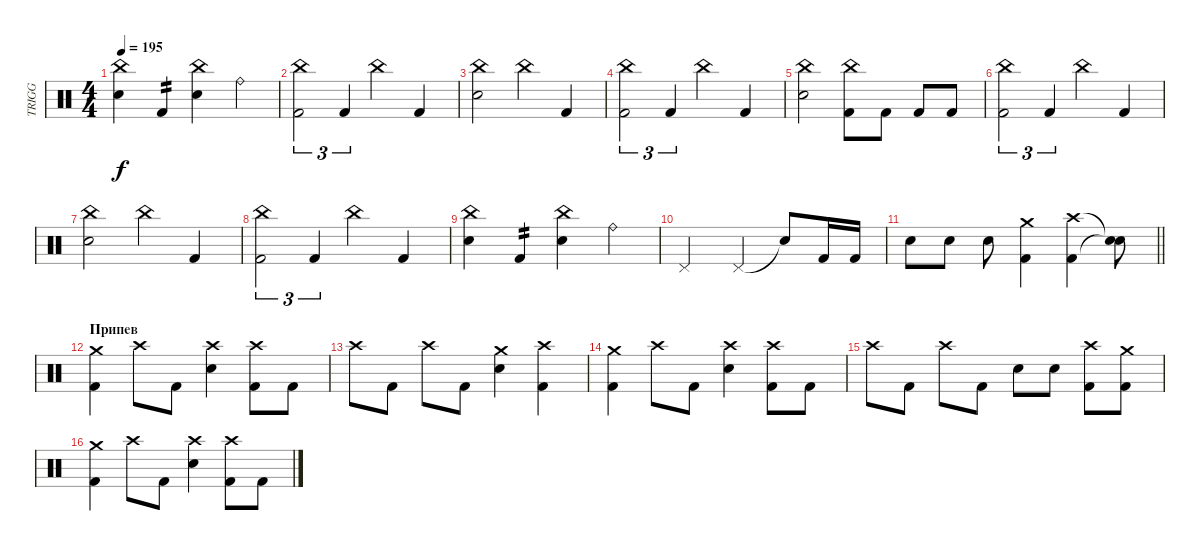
\track ("TRIGG" "TRIGG") {instrument percussion}
\staff {score}
\articulation defaults
\ts (4 4)
\tempo 195
\clef neutral
\ks c
("China (hit)" "Electric Snare (hit)").4{dy f} "Kick (hit) 2".4{tp 2} ("China (hit)" "Electric Snare (hit)").4 "Ride (bell)".4 |
("China (hit)" "Kick (hit) 2").2{tu (3 2)} "Kick (hit) 2".4{tu (3 2)} "China (hit)".4 "Kick (hit) 2".4 |
("China (hit)" "Electric Snare (hit)").2 "China (hit)".4 "Kick (hit) 2".4 |
("China (hit)" "Kick (hit) 2").2{tu (3 2)} "Kick (hit) 2".4{tu (3 2)} "China (hit)".4 "Kick (hit) 2".4 |
("China (hit)" "Electric Snare (hit)").2 ("China (hit)" "Kick (hit) 2").8 "Kick (hit) 2".8 "Kick (hit) 2".8 "Kick (hit) 2".8 |
("China (hit)" "Kick (hit) 2").2{tu (3 2)} "Kick (hit) 2".4{tu (3 2)} "China (hit)".4 "Kick (hit) 2".4 |
("China (hit)" "Electric Snare (hit)").2 "China (hit)".4 "Kick (hit) 2".4 |
("China (hit)" "Kick (hit) 2").2{tu (3 2)} "Kick (hit) 2".4{tu (3 2)} "China (hit)".4 "Kick (hit) 2".4 |
("China (hit)" "Electric Snare (hit)").4 "Kick (hit) 2".4{tp 2} ("China (hit)" "Electric Snare (hit)").4 "Ride (bell)".4 |
"Pedal Hi-Hat (hit)".2 "Pedal Hi-Hat (hit)".4 "Snare (hit)"{t}.8 "Kick (hit) 2".16 "Kick (hit) 2".16 |
\barLineRight lightlight "Electric Snare (hit)".8 "Electric Snare (hit)".8 "Electric Snare (hit)".8
("Crash medium (hit)" "Kick (hit) 2").4 ("Crash high (hit)" "Kick (hit) 2").4 ("Snare (hit)"{t} "Snare (hit)"{t}).8 |
\section ("" "Припев")
("Crash medium (hit)" "Kick (hit) 2").4 "Crash high (hit)".8 "Kick (hit) 2".8 ("Crash high (hit)" "Electric Snare (hit)").4 ("Crash high (hit)" "Kick (hit) 2").8 "Kick (hit) 2".8 |
"Crash high (hit)".8 "Kick (hit) 2".8 "Crash high (hit)".8 "Kick (hit) 2".8 ("Crash medium (hit)" "Electric Snare (hit)").4 ("Crash high (hit)" "Kick (hit) 2").4 |
("Crash medium (hit)" "Kick (hit) 2").4 "Crash high (hit)".8 "Kick (hit) 2".8 ("Crash high (hit)" "Electric Snare (hit)").4 ("Crash high (hit)" "Kick (hit) 2").8 "Kick (hit) 2".8 |
"Crash high (hit)".8 "Kick (hit) 2".8 "Crash high (hit)".8 "Kick (hit) 2".8 "Electric Snare (hit)".8 "Electric Snare (hit)".8 ("Crash high (hit)" "Kick (hit) 2").8 ("Crash medium (hit)" "Kick (hit) 2").8 |
("Crash medium (hit)" "Kick (hit) 2").4 "Crash high (hit)".8 "Kick (hit) 2".8 ("Crash high (hit)" "Electric Snare (hit)").4 ("Crash high (hit)" "Kick (hit) 2").8 "Kick (hit) 2".8
